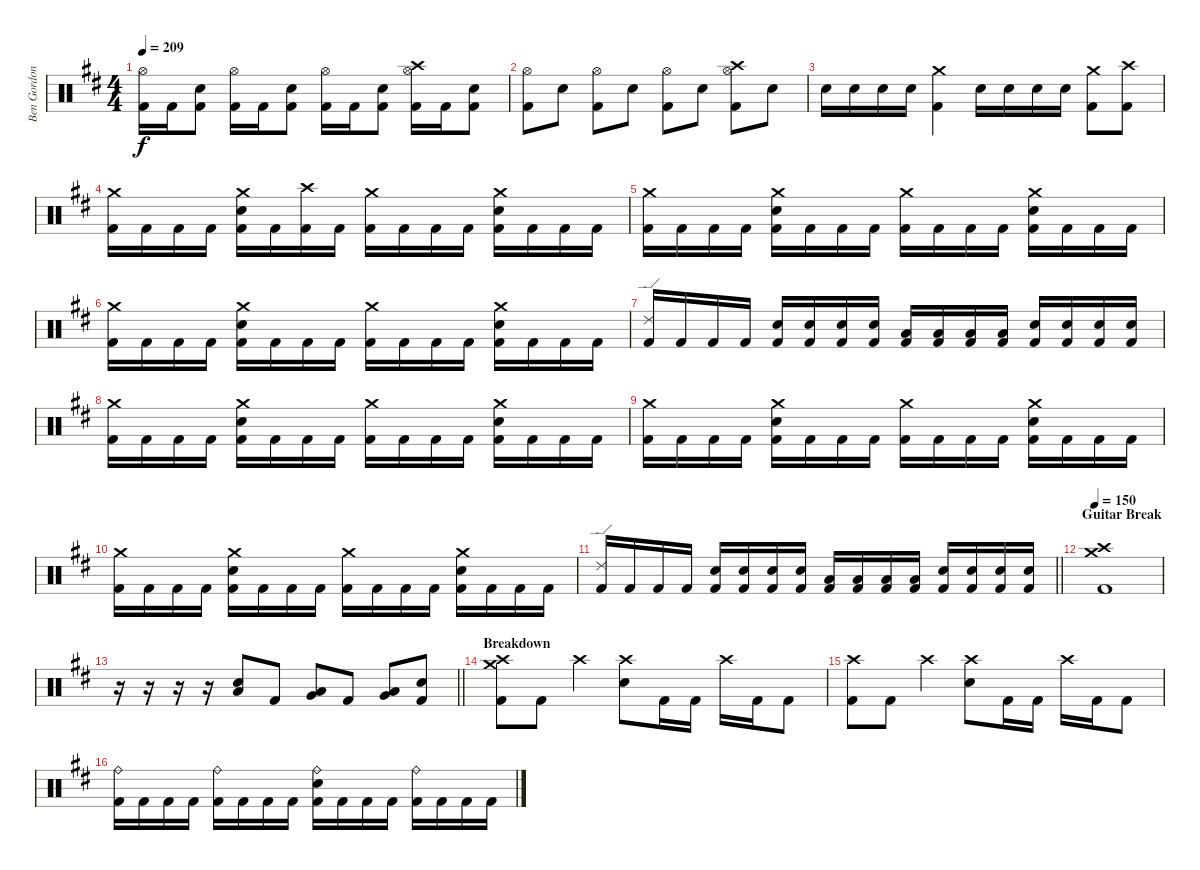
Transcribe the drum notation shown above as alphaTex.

\track ("Ben Gordon" "Ben Gordon") {instrument percussion}
\staff {score}
\articulation defaults
\ts (4 4)
\tempo 209
\clef neutral
\ks d
("Hi-Hat (open)" "Kick (hit) 2").16{dy f} "Kick (hit) 2".16 ("Electric Snare (hit)" "Kick (hit) 2").8 ("Hi-Hat (open)" "Kick (hit) 2").16 "Kick (hit) 2".16 ("Electric Snare (hit)" "Kick (hit) 2").8 ("Hi-Hat (open)" "Kick (hit) 2").16 "Kick (hit) 2".16 ("Electric Snare (hit)" "Kick (hit) 2").8 ("Crash high (hit)" "Hi-Hat (open)" "Kick (hit) 2").16 "Kick (hit) 2".16 ("Electric Snare (hit)" "Kick (hit) 2").8 |
("Hi-Hat (open)" "Kick (hit) 2").8 "Electric Snare (hit)".8 ("Hi-Hat (open)" "Kick (hit) 2").8 "Electric Snare (hit)".8 ("Hi-Hat (open)" "Kick (hit) 2").8 "Electric Snare (hit)".8 ("Crash high (hit)" "Hi-Hat (open)" "Kick (hit) 2").8 "Electric Snare (hit)".8 |
"Electric Snare (hit)".16 "Electric Snare (hit)".16 "Electric Snare (hit)".16 "Electric Snare (hit)".16 ("Crash medium (hit)" "Kick (hit) 2").4 "Electric Snare (hit)".16 "Electric Snare (hit)".16 "Electric Snare (hit)".16 "Electric Snare (hit)".16 ("Crash medium (hit)" "Kick (hit) 2").8 ("Crash high (hit)" "Kick (hit) 2").8 |
("Crash medium (hit)" "Kick (hit) 2").16 "Kick (hit) 2".16 "Kick (hit) 2".16 "Kick (hit) 2".16 ("Crash medium (hit)" "Electric Snare (hit)" "Kick (hit) 2").16 "Kick (hit) 2".16 ("Crash high (hit)" "Kick (hit) 2").16 "Kick (hit) 2".16 ("Crash medium (hit)" "Kick (hit) 2").16 "Kick (hit) 2".16 "Kick (hit) 2".16 "Kick (hit) 2".16 ("Crash medium (hit)" "Electric Snare (hit)" "Kick (hit) 2").16 "Kick (hit) 2".16 "Kick (hit) 2".16 "Kick (hit) 2".16 |
("Crash medium (hit)" "Kick (hit) 2").16 "Kick (hit) 2".16 "Kick (hit) 2".16 "Kick (hit) 2".16 ("Crash medium (hit)" "Electric Snare (hit)" "Kick (hit) 2").16 "Kick (hit) 2".16 "Kick (hit) 2".16 "Kick (hit) 2".16 ("Crash medium (hit)" "Kick (hit) 2").16 "Kick (hit) 2".16 "Kick (hit) 2".16 "Kick (hit) 2".16 ("Crash medium (hit)" "Electric Snare (hit)" "Kick (hit) 2").16 "Kick (hit) 2".16 "Kick (hit) 2".16 "Kick (hit) 2".16 |
("Crash medium (hit)" "Kick (hit) 2").16 "Kick (hit) 2".16 "Kick (hit) 2".16 "Kick (hit) 2".16 ("Crash medium (hit)" "Electric Snare (hit)" "Kick (hit) 2").16 "Kick (hit) 2".16 "Kick (hit) 2".16 "Kick (hit) 2".16 ("Crash medium (hit)" "Kick (hit) 2").16 "Kick (hit) 2".16 "Kick (hit) 2".16 "Kick (hit) 2".16 ("Crash medium (hit)" "Electric Snare (hit)" "Kick (hit) 2").16 "Kick (hit) 2".16 "Kick (hit) 2".16 "Kick (hit) 2".16 |
("Ride (edge) 2" "Kick (hit) 2").16 "Kick (hit) 2".16 "Kick (hit) 2".16 "Kick (hit) 2".16 ("Electric Snare (hit)" "Kick (hit) 2").16 ("Electric Snare (hit)" "Kick (hit) 2").16 ("Electric Snare (hit)" "Kick (hit) 2").16 ("Electric Snare (hit)" "Kick (hit) 2").16 ("Low Tom (hit)" "Kick (hit) 2").16 ("Low Tom (hit)" "Kick (hit) 2").16 ("Low Tom (hit)" "Kick (hit) 2").16 ("Low Tom (hit)" "Kick (hit) 2").16 ("Electric Snare (hit)" "Kick (hit) 2").16 ("Electric Snare (hit)" "Kick (hit) 2").16 ("Electric Snare (hit)" "Kick (hit) 2").16 ("Electric Snare (hit)" "Kick (hit) 2").16 |
("Crash medium (hit)" "Kick (hit) 2").16 "Kick (hit) 2".16 "Kick (hit) 2".16 "Kick (hit) 2".16 ("Crash medium (hit)" "Electric Snare (hit)" "Kick (hit) 2").16 "Kick (hit) 2".16 "Kick (hit) 2".16 "Kick (hit) 2".16 ("Crash medium (hit)" "Kick (hit) 2").16 "Kick (hit) 2".16 "Kick (hit) 2".16 "Kick (hit) 2".16 ("Crash medium (hit)" "Electric Snare (hit)" "Kick (hit) 2").16 "Kick (hit) 2".16 "Kick (hit) 2".16 "Kick (hit) 2".16 |
("Crash medium (hit)" "Kick (hit) 2").16 "Kick (hit) 2".16 "Kick (hit) 2".16 "Kick (hit) 2".16 ("Crash medium (hit)" "Electric Snare (hit)" "Kick (hit) 2").16 "Kick (hit) 2".16 "Kick (hit) 2".16 "Kick (hit) 2".16 ("Crash medium (hit)" "Kick (hit) 2").16 "Kick (hit) 2".16 "Kick (hit) 2".16 "Kick (hit) 2".16 ("Crash medium (hit)" "Electric Snare (hit)" "Kick (hit) 2").16 "Kick (hit) 2".16 "Kick (hit) 2".16 "Kick (hit) 2".16 |
("Crash medium (hit)" "Kick (hit) 2").16 "Kick (hit) 2".16 "Kick (hit) 2".16 "Kick (hit) 2".16 ("Crash medium (hit)" "Electric Snare (hit)" "Kick (hit) 2").16 "Kick (hit) 2".16 "Kick (hit) 2".16 "Kick (hit) 2".16 ("Crash medium (hit)" "Kick (hit) 2").16 "Kick (hit) 2".16 "Kick (hit) 2".16 "Kick (hit) 2".16 ("Crash medium (hit)" "Electric Snare (hit)" "Kick (hit) 2").16 "Kick (hit) 2".16 "Kick (hit) 2".16 "Kick (hit) 2".16 |
\barLineRight lightlight
("Ride (edge) 2" "Kick (hit) 2").16 "Kick (hit) 2".16 "Kick (hit) 2".16 "Kick (hit) 2".16 ("Electric Snare (hit)" "Kick (hit) 2").16 ("Electric Snare (hit)" "Kick (hit) 2").16 ("Electric Snare (hit)" "Kick (hit) 2").16 ("Electric Snare (hit)" "Kick (hit) 2").16 ("Low Tom (hit)" "Kick (hit) 2").16 ("Low Tom (hit)" "Kick (hit) 2").16 ("Low Tom (hit)" "Kick (hit) 2").16 ("Low Tom (hit)" "Kick (hit) 2").16 ("Electric Snare (hit)" "Kick (hit) 2").16 ("Electric Snare (hit)" "Kick (hit) 2").16 ("Electric Snare (hit)" "Kick (hit) 2").16 ("Electric Snare (hit)" "Kick (hit) 2").16 |
\section ("" "Guitar Break")
\tempo 150
("Crash medium (hit)" "Crash high (hit)" "Kick (hit) 2").1 |
\barLineRight lightlight
r.16 r.16 r.16 r.16 ("Electric Snare (hit)" "Low Tom (hit)").8 "Kick (hit) 2".8 ("Low Tom (hit)" "Very Low Tom (hit)").8 "Kick (hit) 2".8 ("Very Low Tom (hit)" "Low Floor Tom (hit)").8 ("Electric Snare (hit)" "Kick (hit) 2").8 |
\section ("" "Breakdown")
("Crash medium (hit)" "Crash high (hit)" "Kick (hit) 2").8 "Kick (hit) 2".8 "Crash high (hit)".4 ("Crash high (hit)" "Electric Snare (hit)").8 "Kick (hit) 2".16 "Kick (hit) 2".16 "Crash high (hit)".16 "Kick (hit) 2".16 "Kick (hit) 2".8 |
("Crash high (hit)" "Kick (hit) 2").8 "Kick (hit) 2".8 "Crash high (hit)".4 ("Crash high (hit)" "Electric Snare (hit)").8 "Kick (hit) 2".16 "Kick (hit) 2".16 "Crash high (hit)".16 "Kick (hit) 2".16 "Kick (hit) 2".8 |
("Ride (bell)" "Kick (hit) 2").16 "Kick (hit) 2".16 "Kick (hit) 2".16 "Kick (hit) 2".16 ("Ride (bell)" "Kick (hit) 2").16 "Kick (hit) 2".16 "Kick (hit) 2".16 "Kick (hit) 2".16 ("Ride (bell)" "Electric Snare (hit)" "Kick (hit) 2").16 "Kick (hit) 2".16 "Kick (hit) 2".16 "Kick (hit) 2".16 ("Ride (bell)" "Kick (hit) 2").16 "Kick (hit) 2".16 "Kick (hit) 2".16 "Kick (hit) 2".16
